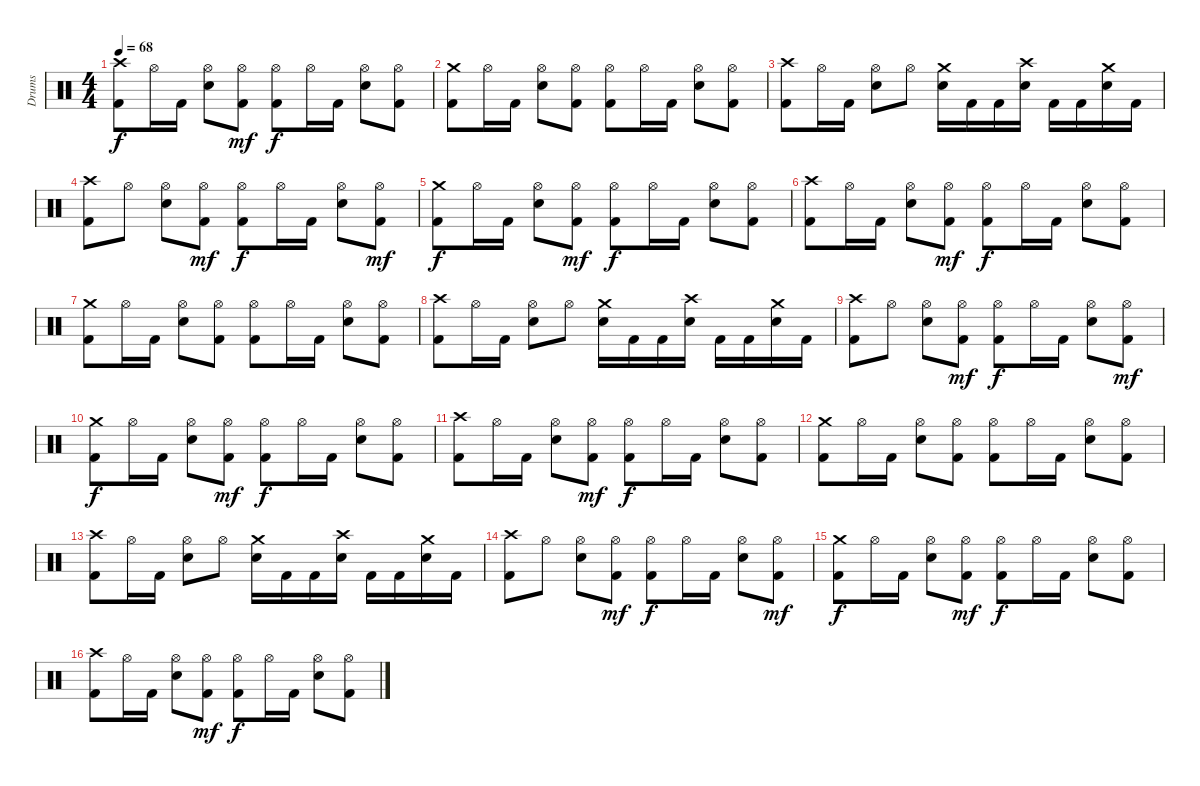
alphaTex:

\track ("Drums" "Drums") {instrument percussion}
\staff {score}
\articulation defaults
\ts (4 4)
\tempo 68
\clef neutral
\ks c
("Crash high (hit)" "Kick (hit) 2").8{dy f} "Hi-Hat (open)".16 "Kick (hit) 2".16 ("Hi-Hat (open)" "Snare (hit) 2").8 ("Hi-Hat (open)" "Kick (hit) 2").8{dy mf} ("Hi-Hat (open)" "Kick (hit) 2").8{dy f} "Hi-Hat (open)".16 "Kick (hit) 2".16 ("Hi-Hat (open)" "Snare (hit) 2").8 ("Hi-Hat (open)" "Kick (hit) 2").8 |
("Crash medium (hit)" "Kick (hit) 2").8 "Hi-Hat (open)".16 "Kick (hit) 2".16 ("Hi-Hat (open)" "Snare (hit) 2").8 ("Hi-Hat (open)" "Kick (hit) 2").8 ("Hi-Hat (open)" "Kick (hit) 2").8 "Hi-Hat (open)".16 "Kick (hit) 2".16 ("Hi-Hat (open)" "Snare (hit) 2").8 ("Hi-Hat (open)" "Kick (hit) 2").8 |
("Crash high (hit)" "Kick (hit) 2").8 "Hi-Hat (open)".16 "Kick (hit) 2".16 ("Hi-Hat (open)" "Snare (hit) 2").8 "Hi-Hat (open)".8 ("Crash medium (hit)" "Snare (hit) 2").16 "Kick (hit) 2".16 "Kick (hit) 2".16 ("Crash high (hit)" "Snare (hit) 2").16 "Kick (hit) 2".16 "Kick (hit) 2".16 ("Crash medium (hit)" "Snare (hit) 2").16 "Kick (hit) 2".16 |
("Crash high (hit)" "Kick (hit) 2").8 "Hi-Hat (open)".8 ("Hi-Hat (open)" "Snare (hit) 2").8 ("Hi-Hat (open)" "Kick (hit) 2").8{dy mf} ("Hi-Hat (open)" "Kick (hit) 2").8{dy f} "Hi-Hat (open)".16 "Kick (hit) 2".16 ("Hi-Hat (open)" "Snare (hit) 2").8 ("Hi-Hat (open)" "Kick (hit) 2").8{dy mf} |
("Crash medium (hit)" "Kick (hit) 2").8{dy f} "Hi-Hat (open)".16 "Kick (hit) 2".16 ("Hi-Hat (open)" "Snare (hit) 2").8 ("Hi-Hat (open)" "Kick (hit) 2").8{dy mf} ("Hi-Hat (open)" "Kick (hit) 2").8{dy f} "Hi-Hat (open)".16 "Kick (hit) 2".16 ("Hi-Hat (open)" "Snare (hit) 2").8 ("Hi-Hat (open)" "Kick (hit) 2").8 |
("Crash high (hit)" "Kick (hit) 2").8 "Hi-Hat (open)".16 "Kick (hit) 2".16 ("Hi-Hat (open)" "Snare (hit) 2").8 ("Hi-Hat (open)" "Kick (hit) 2").8{dy mf} ("Hi-Hat (open)" "Kick (hit) 2").8{dy f} "Hi-Hat (open)".16 "Kick (hit) 2".16 ("Hi-Hat (open)" "Snare (hit) 2").8 ("Hi-Hat (open)" "Kick (hit) 2").8 |
("Crash medium (hit)" "Kick (hit) 2").8 "Hi-Hat (open)".16 "Kick (hit) 2".16 ("Hi-Hat (open)" "Snare (hit) 2").8 ("Hi-Hat (open)" "Kick (hit) 2").8 ("Hi-Hat (open)" "Kick (hit) 2").8 "Hi-Hat (open)".16 "Kick (hit) 2".16 ("Hi-Hat (open)" "Snare (hit) 2").8 ("Hi-Hat (open)" "Kick (hit) 2").8 |
("Crash high (hit)" "Kick (hit) 2").8 "Hi-Hat (open)".16 "Kick (hit) 2".16 ("Hi-Hat (open)" "Snare (hit) 2").8 "Hi-Hat (open)".8 ("Crash medium (hit)" "Snare (hit) 2").16 "Kick (hit) 2".16 "Kick (hit) 2".16 ("Crash high (hit)" "Snare (hit) 2").16 "Kick (hit) 2".16 "Kick (hit) 2".16 ("Crash medium (hit)" "Snare (hit) 2").16 "Kick (hit) 2".16 |
("Crash high (hit)" "Kick (hit) 2").8 "Hi-Hat (open)".8 ("Hi-Hat (open)" "Snare (hit) 2").8 ("Hi-Hat (open)" "Kick (hit) 2").8{dy mf} ("Hi-Hat (open)" "Kick (hit) 2").8{dy f} "Hi-Hat (open)".16 "Kick (hit) 2".16 ("Hi-Hat (open)" "Snare (hit) 2").8 ("Hi-Hat (open)" "Kick (hit) 2").8{dy mf} |
("Crash medium (hit)" "Kick (hit) 2").8{dy f} "Hi-Hat (open)".16 "Kick (hit) 2".16 ("Hi-Hat (open)" "Snare (hit) 2").8 ("Hi-Hat (open)" "Kick (hit) 2").8{dy mf} ("Hi-Hat (open)" "Kick (hit) 2").8{dy f} "Hi-Hat (open)".16 "Kick (hit) 2".16 ("Hi-Hat (open)" "Snare (hit) 2").8 ("Hi-Hat (open)" "Kick (hit) 2").8 |
("Crash high (hit)" "Kick (hit) 2").8 "Hi-Hat (open)".16 "Kick (hit) 2".16 ("Hi-Hat (open)" "Snare (hit) 2").8 ("Hi-Hat (open)" "Kick (hit) 2").8{dy mf} ("Hi-Hat (open)" "Kick (hit) 2").8{dy f} "Hi-Hat (open)".16 "Kick (hit) 2".16 ("Hi-Hat (open)" "Snare (hit) 2").8 ("Hi-Hat (open)" "Kick (hit) 2").8 |
("Crash medium (hit)" "Kick (hit) 2").8 "Hi-Hat (open)".16 "Kick (hit) 2".16 ("Hi-Hat (open)" "Snare (hit) 2").8 ("Hi-Hat (open)" "Kick (hit) 2").8 ("Hi-Hat (open)" "Kick (hit) 2").8 "Hi-Hat (open)".16 "Kick (hit) 2".16 ("Hi-Hat (open)" "Snare (hit) 2").8 ("Hi-Hat (open)" "Kick (hit) 2").8 |
("Crash high (hit)" "Kick (hit) 2").8 "Hi-Hat (open)".16 "Kick (hit) 2".16 ("Hi-Hat (open)" "Snare (hit) 2").8 "Hi-Hat (open)".8 ("Crash medium (hit)" "Snare (hit) 2").16 "Kick (hit) 2".16 "Kick (hit) 2".16 ("Crash high (hit)" "Snare (hit) 2").16 "Kick (hit) 2".16 "Kick (hit) 2".16 ("Crash medium (hit)" "Snare (hit) 2").16 "Kick (hit) 2".16 |
("Crash high (hit)" "Kick (hit) 2").8 "Hi-Hat (open)".8 ("Hi-Hat (open)" "Snare (hit) 2").8 ("Hi-Hat (open)" "Kick (hit) 2").8{dy mf} ("Hi-Hat (open)" "Kick (hit) 2").8{dy f} "Hi-Hat (open)".16 "Kick (hit) 2".16 ("Hi-Hat (open)" "Snare (hit) 2").8 ("Hi-Hat (open)" "Kick (hit) 2").8{dy mf} |
("Crash medium (hit)" "Kick (hit) 2").8{dy f} "Hi-Hat (open)".16 "Kick (hit) 2".16 ("Hi-Hat (open)" "Snare (hit) 2").8 ("Hi-Hat (open)" "Kick (hit) 2").8{dy mf} ("Hi-Hat (open)" "Kick (hit) 2").8{dy f} "Hi-Hat (open)".16 "Kick (hit) 2".16 ("Hi-Hat (open)" "Snare (hit) 2").8 ("Hi-Hat (open)" "Kick (hit) 2").8 |
("Crash high (hit)" "Kick (hit) 2").8 "Hi-Hat (open)".16 "Kick (hit) 2".16 ("Hi-Hat (open)" "Snare (hit) 2").8 ("Hi-Hat (open)" "Kick (hit) 2").8{dy mf} ("Hi-Hat (open)" "Kick (hit) 2").8{dy f} "Hi-Hat (open)".16 "Kick (hit) 2".16 ("Hi-Hat (open)" "Snare (hit) 2").8 ("Hi-Hat (open)" "Kick (hit) 2").8
